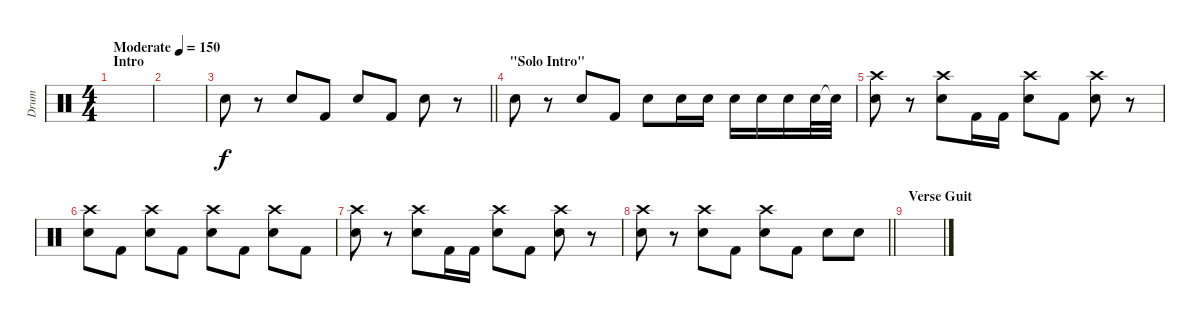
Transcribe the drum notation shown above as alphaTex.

\track ("Drum" "Drum") {instrument percussion}
\staff {score}
\articulation defaults
\ts (4 4)
\section ("" "Intro")
\tempo (150 "Moderate")
\clef neutral
\ks c
|
|
\barLineRight lightlight "Electric Snare (hit)".8
r.8 "Electric Snare (hit)".8 "Kick (hit) 2".8 "Electric Snare (hit)".8 "Kick (hit) 2".8 "Electric Snare (hit)".8 r.8 |
\section ("" "\"Solo Intro\" ")
"Electric Snare (hit)".8 r.8 "Electric Snare (hit)".8 "Kick (hit) 2".8 "Electric Snare (hit)".8 "Electric Snare (hit)".16 "Electric Snare (hit)".16 "Electric Snare (hit)".16 "Electric Snare (hit)".16 "Electric Snare (hit)".16 "Electric Snare (hit)".32 "Snare (hit)"{t}.32 |
("Crash high (hit)" "Electric Snare (hit)").8 r.8 ("Crash high (hit)" "Electric Snare (hit)").8 "Kick (hit) 2".16 "Kick (hit) 2".16 ("Crash high (hit)" "Electric Snare (hit)").8 "Kick (hit) 2".8 ("Crash high (hit)" "Electric Snare (hit)").8 r.8 |
("Crash high (hit)" "Electric Snare (hit)").8 "Kick (hit) 2".8 ("Crash high (hit)" "Electric Snare (hit)").8 "Kick (hit) 2".8 ("Crash high (hit)" "Electric Snare (hit)").8 "Kick (hit) 2".8 ("Crash high (hit)" "Electric Snare (hit)").8 "Kick (hit) 2".8 |
("Crash high (hit)" "Electric Snare (hit)").8 r.8 ("Crash high (hit)" "Electric Snare (hit)").8 "Kick (hit) 2".16 "Kick (hit) 2".16 ("Crash high (hit)" "Electric Snare (hit)").8 "Kick (hit) 2".8 ("Crash high (hit)" "Electric Snare (hit)").8 r.8 |
\barLineRight lightlight
("Crash high (hit)" "Electric Snare (hit)").8 r.8 ("Crash high (hit)" "Electric Snare (hit)").8 "Kick (hit) 2".8 ("Crash high (hit)" "Electric Snare (hit)").8 "Kick (hit) 2".8 "Electric Snare (hit)".8 "Electric Snare (hit)".8 |
\section ("" "Verse Guit")
